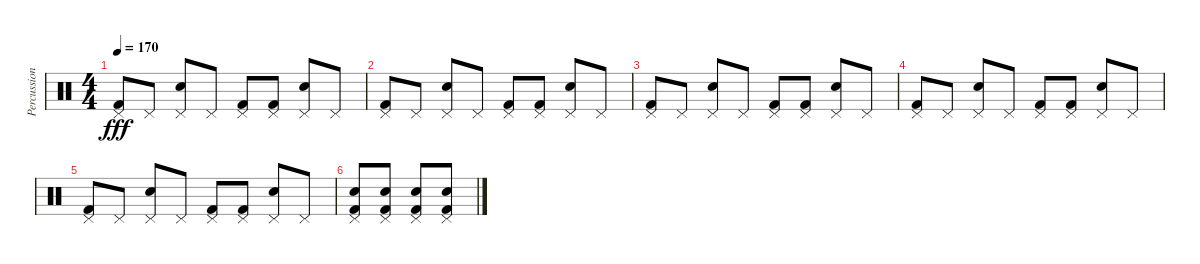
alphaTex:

\track ("Percussion" "Percussion") {instrument percussion}
\staff {score}
\articulation defaults
\ts (4 4)
\tempo 170
\clef neutral
\ks c
("Pedal Hi-Hat (hit)" "Kick (hit) 2").8{dy fff} "Pedal Hi-Hat (hit)".8 ("Pedal Hi-Hat (hit)" "Snare (hit) 2").8 "Pedal Hi-Hat (hit)".8 ("Pedal Hi-Hat (hit)" "Kick (hit) 2").8 ("Pedal Hi-Hat (hit)" "Kick (hit) 2").8 ("Pedal Hi-Hat (hit)" "Snare (hit) 2").8 "Pedal Hi-Hat (hit)".8 |
("Pedal Hi-Hat (hit)" "Kick (hit) 2").8 "Pedal Hi-Hat (hit)".8 ("Pedal Hi-Hat (hit)" "Snare (hit) 2").8 "Pedal Hi-Hat (hit)".8 ("Pedal Hi-Hat (hit)" "Kick (hit) 2").8 ("Pedal Hi-Hat (hit)" "Kick (hit) 2").8 ("Pedal Hi-Hat (hit)" "Snare (hit) 2").8 "Pedal Hi-Hat (hit)".8 |
("Pedal Hi-Hat (hit)" "Kick (hit) 2").8 "Pedal Hi-Hat (hit)".8 ("Pedal Hi-Hat (hit)" "Snare (hit) 2").8 "Pedal Hi-Hat (hit)".8 ("Pedal Hi-Hat (hit)" "Kick (hit) 2").8 ("Pedal Hi-Hat (hit)" "Kick (hit) 2").8 ("Pedal Hi-Hat (hit)" "Snare (hit) 2").8 "Pedal Hi-Hat (hit)".8 |
("Pedal Hi-Hat (hit)" "Kick (hit) 2").8 "Pedal Hi-Hat (hit)".8 ("Pedal Hi-Hat (hit)" "Snare (hit) 2").8 "Pedal Hi-Hat (hit)".8 ("Pedal Hi-Hat (hit)" "Kick (hit) 2").8 ("Pedal Hi-Hat (hit)" "Kick (hit) 2").8 ("Pedal Hi-Hat (hit)" "Snare (hit) 2").8 "Pedal Hi-Hat (hit)".8 |
("Pedal Hi-Hat (hit)" "Kick (hit) 2").8 "Pedal Hi-Hat (hit)".8 ("Pedal Hi-Hat (hit)" "Snare (hit) 2").8 "Pedal Hi-Hat (hit)".8 ("Pedal Hi-Hat (hit)" "Kick (hit) 2").8 ("Pedal Hi-Hat (hit)" "Kick (hit) 2").8 ("Pedal Hi-Hat (hit)" "Snare (hit) 2").8 "Pedal Hi-Hat (hit)".8 |
("Pedal Hi-Hat (hit)" "Kick (hit) 2" "Snare (hit) 2").8 ("Pedal Hi-Hat (hit)" "Kick (hit) 2" "Snare (hit) 2").8 ("Pedal Hi-Hat (hit)" "Kick (hit) 2" "Snare (hit) 2").8 ("Pedal Hi-Hat (hit)" "Snare (hit) 2" "Kick (hit) 2").8
